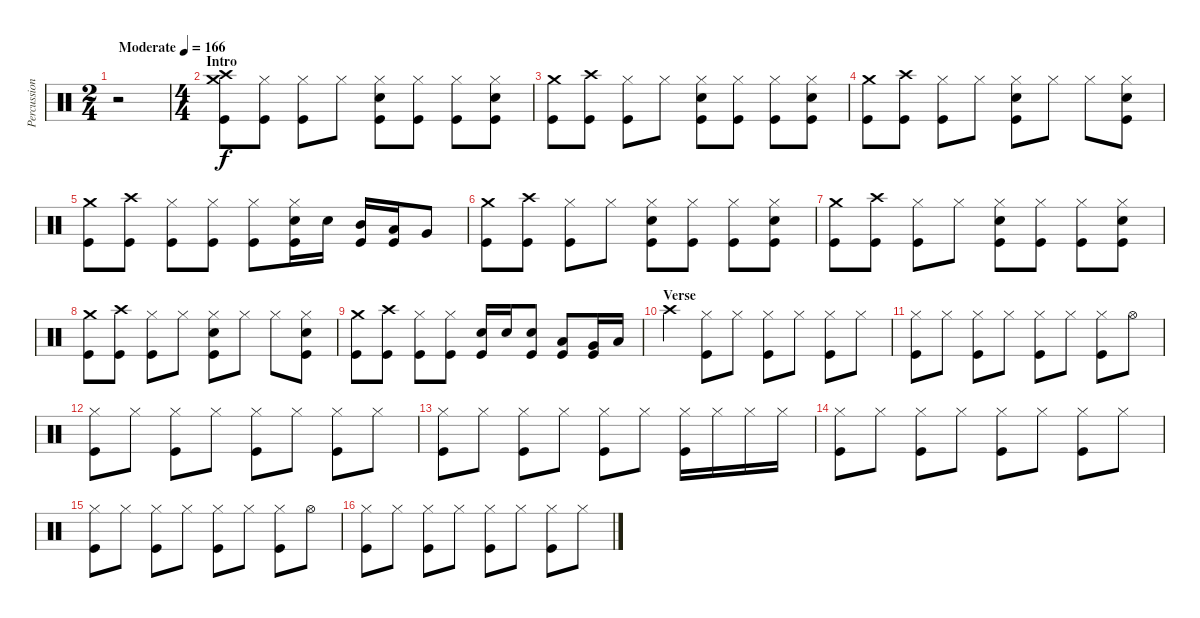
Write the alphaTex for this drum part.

\track ("Percussion" "Percussion") {instrument percussion}
\staff {score}
\articulation defaults
\ts (2 4)
\tempo (166 "Moderate")
\clef neutral
\ks c
r.2{dy f} |
\ts (4 4)
\section ("" "Intro")
("Crash high (hit)" "Crash medium (hit)" "Kick (hit)").8 ("Hi-Hat (closed)" "Kick (hit)").8 ("Hi-Hat (closed)" "Kick (hit)").8 "Hi-Hat (closed)".8 ("Hi-Hat (closed)" "Electric Snare (hit)" "Kick (hit)").8 ("Hi-Hat (closed)" "Kick (hit)").8 ("Hi-Hat (closed)" "Kick (hit)").8 ("Hi-Hat (closed)" "Electric Snare (hit)" "Kick (hit)").8 |
("Crash medium (hit)" "Kick (hit)").8 ("Crash high (hit)" "Kick (hit)").8 ("Hi-Hat (closed)" "Kick (hit)").8 "Hi-Hat (closed)".8 ("Hi-Hat (closed)" "Electric Snare (hit)" "Kick (hit)").8 ("Hi-Hat (closed)" "Kick (hit)").8 ("Hi-Hat (closed)" "Kick (hit)").8 ("Hi-Hat (closed)" "Electric Snare (hit)" "Kick (hit)").8 |
("Crash medium (hit)" "Kick (hit)").8 ("Crash high (hit)" "Kick (hit)").8 ("Hi-Hat (closed)" "Kick (hit)").8 "Hi-Hat (closed)".8 ("Hi-Hat (closed)" "Electric Snare (hit)" "Kick (hit)").8 "Hi-Hat (closed)".8 "Hi-Hat (closed)".8 ("Hi-Hat (closed)" "Electric Snare (hit)" "Kick (hit)").8 |
("Crash medium (hit)" "Kick (hit)").8 ("Crash high (hit)" "Kick (hit)").8 ("Hi-Hat (closed)" "Kick (hit)").8 ("Hi-Hat (closed)" "Kick (hit)").8 ("Hi-Hat (closed)" "Kick (hit)").8 ("Hi-Hat (closed)" "Electric Snare (hit)" "Kick (hit)").16 "Electric Snare (hit)".16 ("Mid Tom (hit)" "Kick (hit)").16 ("Low Tom (hit)" "Kick (hit)").16 "Very Low Tom (hit)".8 |
("Crash medium (hit)" "Kick (hit)").8 ("Crash high (hit)" "Kick (hit)").8 ("Hi-Hat (closed)" "Kick (hit)").8 "Hi-Hat (closed)".8 ("Hi-Hat (closed)" "Electric Snare (hit)" "Kick (hit)").8 ("Hi-Hat (closed)" "Kick (hit)").8 ("Hi-Hat (closed)" "Kick (hit)").8 ("Hi-Hat (closed)" "Electric Snare (hit)" "Kick (hit)").8 |
("Crash medium (hit)" "Kick (hit)").8 ("Crash high (hit)" "Kick (hit)").8 ("Hi-Hat (closed)" "Kick (hit)").8 "Hi-Hat (closed)".8 ("Hi-Hat (closed)" "Electric Snare (hit)" "Kick (hit)").8 ("Hi-Hat (closed)" "Kick (hit)").8 ("Hi-Hat (closed)" "Kick (hit)").8 ("Hi-Hat (closed)" "Electric Snare (hit)" "Kick (hit)").8 |
("Crash medium (hit)" "Kick (hit)").8 ("Crash high (hit)" "Kick (hit)").8 ("Hi-Hat (closed)" "Kick (hit)").8 "Hi-Hat (closed)".8 ("Hi-Hat (closed)" "Electric Snare (hit)" "Kick (hit)").8 "Hi-Hat (closed)".8 "Hi-Hat (closed)".8 ("Hi-Hat (closed)" "Electric Snare (hit)" "Kick (hit)").8 |
("Crash medium (hit)" "Kick (hit)").8 ("Crash high (hit)" "Kick (hit)").8 ("Hi-Hat (closed)" "Kick (hit)").8 ("Hi-Hat (closed)" "Kick (hit)").8 ("Electric Snare (hit)" "Kick (hit)").16 "Electric Snare (hit)".16 ("Electric Snare (hit)" "Kick (hit)").8 ("Low Tom (hit)" "Kick (hit)").8 ("Very Low Tom (hit)" "Kick (hit)").16 "Low Floor Tom (hit)".16 |
\section ("" "Verse")
"Crash high (hit)".4 ("Hi-Hat (closed)" "Kick (hit)").8 "Hi-Hat (closed)".8 ("Hi-Hat (closed)" "Kick (hit)").8 "Hi-Hat (closed)".8 ("Hi-Hat (closed)" "Kick (hit)").8 "Hi-Hat (closed)".8 |
("Hi-Hat (closed)" "Kick (hit)").8 "Hi-Hat (closed)".8 ("Hi-Hat (closed)" "Kick (hit)").8 "Hi-Hat (closed)".8 ("Hi-Hat (closed)" "Kick (hit)").8 "Hi-Hat (closed)".8 ("Hi-Hat (closed)" "Kick (hit)").8 "Hi-Hat (open)".8 |
("Hi-Hat (closed)" "Kick (hit)").8 "Hi-Hat (closed)".8 ("Hi-Hat (closed)" "Kick (hit)").8 "Hi-Hat (closed)".8 ("Hi-Hat (closed)" "Kick (hit)").8 "Hi-Hat (closed)".8 ("Hi-Hat (closed)" "Kick (hit)").8 "Hi-Hat (closed)".8 |
("Hi-Hat (closed)" "Kick (hit)").8 "Hi-Hat (closed)".8 ("Hi-Hat (closed)" "Kick (hit)").8 "Hi-Hat (closed)".8 ("Hi-Hat (closed)" "Kick (hit)").8 "Hi-Hat (closed)".8 ("Hi-Hat (closed)" "Kick (hit)").16 "Hi-Hat (closed)".16 "Hi-Hat (closed)".16 "Hi-Hat (closed)".16 |
("Hi-Hat (closed)" "Kick (hit)").8 "Hi-Hat (closed)".8 ("Hi-Hat (closed)" "Kick (hit)").8 "Hi-Hat (closed)".8 ("Hi-Hat (closed)" "Kick (hit)").8 "Hi-Hat (closed)".8 ("Hi-Hat (closed)" "Kick (hit)").8 "Hi-Hat (closed)".8 |
("Hi-Hat (closed)" "Kick (hit)").8 "Hi-Hat (closed)".8 ("Hi-Hat (closed)" "Kick (hit)").8 "Hi-Hat (closed)".8 ("Hi-Hat (closed)" "Kick (hit)").8 "Hi-Hat (closed)".8 ("Hi-Hat (closed)" "Kick (hit)").8 "Hi-Hat (open)".8 |
("Hi-Hat (closed)" "Kick (hit)").8 "Hi-Hat (closed)".8 ("Hi-Hat (closed)" "Kick (hit)").8 "Hi-Hat (closed)".8 ("Hi-Hat (closed)" "Kick (hit)").8 "Hi-Hat (closed)".8 ("Hi-Hat (closed)" "Kick (hit)").8 "Hi-Hat (closed)".8
